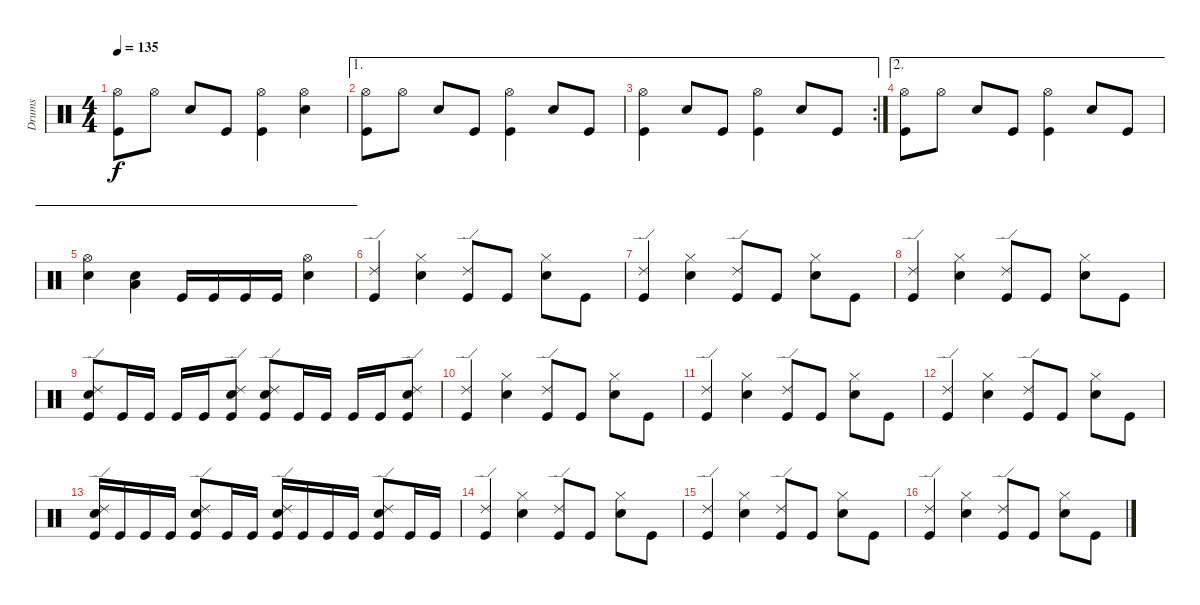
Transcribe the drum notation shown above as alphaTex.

\track ("Drums" "Drums") {instrument percussion}
\staff {score}
\articulation defaults
\ts (4 4)
\tempo 135
\clef neutral
\ks c
("Kick (hit)" "Hi-Hat (open)").8{dy f} "Hi-Hat (open)".8 "Snare (hit) 2".8 "Kick (hit)".8 ("Kick (hit)" "Hi-Hat (open)").4 ("Snare (hit) 2" "Hi-Hat (open)").4 |
\ae 1
("Kick (hit)" "Hi-Hat (open)").8 "Hi-Hat (open)".8 "Snare (hit) 2".8 "Kick (hit)".8 ("Kick (hit)" "Hi-Hat (open)").4 "Snare (hit) 2".8 "Kick (hit)".8 |
\ae 1
\rc 2
("Kick (hit)" "Hi-Hat (open)").4 "Snare (hit) 2".8 "Kick (hit)".8 ("Kick (hit)" "Hi-Hat (open)").4 "Snare (hit) 2".8 "Kick (hit)".8 |
\ae 2
("Kick (hit)" "Hi-Hat (open)").8 "Hi-Hat (open)".8 "Snare (hit) 2".8 "Kick (hit)".8 ("Kick (hit)" "Hi-Hat (open)").4 "Snare (hit) 2".8 "Kick (hit)".8 |
\ae 2
("Snare (hit) 2" "Hi-Hat (open)").4 ("Low Tom (hit)" "Snare (hit) 2").4 "Kick (hit)".16 "Kick (hit)".16 "Kick (hit)".16 "Kick (hit)".16 ("Snare (hit) 2" "Hi-Hat (open)").4 |
("Kick (hit)" "Ride (edge) 2").4 ("Hi-Hat (closed)" "Snare (hit) 2").4 ("Kick (hit)" "Ride (edge) 2").8 "Kick (hit)".8 ("Snare (hit) 2" "Hi-Hat (closed)").8 "Kick (hit)".8 |
("Kick (hit)" "Ride (edge) 2").4 ("Hi-Hat (closed)" "Snare (hit) 2").4 ("Kick (hit)" "Ride (edge) 2").8 "Kick (hit)".8 ("Snare (hit) 2" "Hi-Hat (closed)").8 "Kick (hit)".8 |
("Kick (hit)" "Ride (edge) 2").4 ("Hi-Hat (closed)" "Snare (hit) 2").4 ("Kick (hit)" "Ride (edge) 2").8 "Kick (hit)".8 ("Snare (hit) 2" "Hi-Hat (closed)").8 "Kick (hit)".8 |
("Kick (hit)" "Ride (edge) 2" "Snare (hit) 2").8 "Kick (hit)".16 "Kick (hit)".16 "Kick (hit)".16 "Kick (hit)".16 ("Snare (hit) 2" "Ride (edge) 2" "Kick (hit)").8 ("Snare (hit) 2" "Ride (edge) 2" "Kick (hit)").8 "Kick (hit)".16 "Kick (hit)".16 "Kick (hit)".16 "Kick (hit)".16 ("Snare (hit) 2" "Ride (edge) 2" "Kick (hit)").8 |
("Kick (hit)" "Ride (edge) 2").4 ("Hi-Hat (closed)" "Snare (hit) 2").4 ("Kick (hit)" "Ride (edge) 2").8 "Kick (hit)".8 ("Snare (hit) 2" "Hi-Hat (closed)").8 "Kick (hit)".8 |
("Kick (hit)" "Ride (edge) 2").4 ("Hi-Hat (closed)" "Snare (hit) 2").4 ("Kick (hit)" "Ride (edge) 2").8 "Kick (hit)".8 ("Snare (hit) 2" "Hi-Hat (closed)").8 "Kick (hit)".8 |
("Kick (hit)" "Ride (edge) 2").4 ("Hi-Hat (closed)" "Snare (hit) 2").4 ("Kick (hit)" "Ride (edge) 2").8 "Kick (hit)".8 ("Snare (hit) 2" "Hi-Hat (closed)").8 "Kick (hit)".8 |
("Kick (hit)" "Ride (edge) 2" "Snare (hit) 2").16 "Kick (hit)".16 "Kick (hit)".16 "Kick (hit)".16 ("Kick (hit)" "Ride (edge) 2" "Snare (hit) 2").8 "Kick (hit)".16 "Kick (hit)".16 ("Kick (hit)" "Ride (edge) 2" "Snare (hit) 2").16 "Kick (hit)".16 "Kick (hit)".16 "Kick (hit)".16 ("Kick (hit)" "Ride (edge) 2" "Snare (hit) 2").8 "Kick (hit)".16 "Kick (hit)".16 |
("Kick (hit)" "Ride (edge) 2").4 ("Hi-Hat (closed)" "Snare (hit) 2").4 ("Kick (hit)" "Ride (edge) 2").8 "Kick (hit)".8 ("Snare (hit) 2" "Hi-Hat (closed)").8 "Kick (hit)".8 |
("Kick (hit)" "Ride (edge) 2").4 ("Hi-Hat (closed)" "Snare (hit) 2").4 ("Kick (hit)" "Ride (edge) 2").8 "Kick (hit)".8 ("Snare (hit) 2" "Hi-Hat (closed)").8 "Kick (hit)".8 |
("Kick (hit)" "Ride (edge) 2").4 ("Hi-Hat (closed)" "Snare (hit) 2").4 ("Kick (hit)" "Ride (edge) 2").8 "Kick (hit)".8 ("Snare (hit) 2" "Hi-Hat (closed)").8 "Kick (hit)".8
